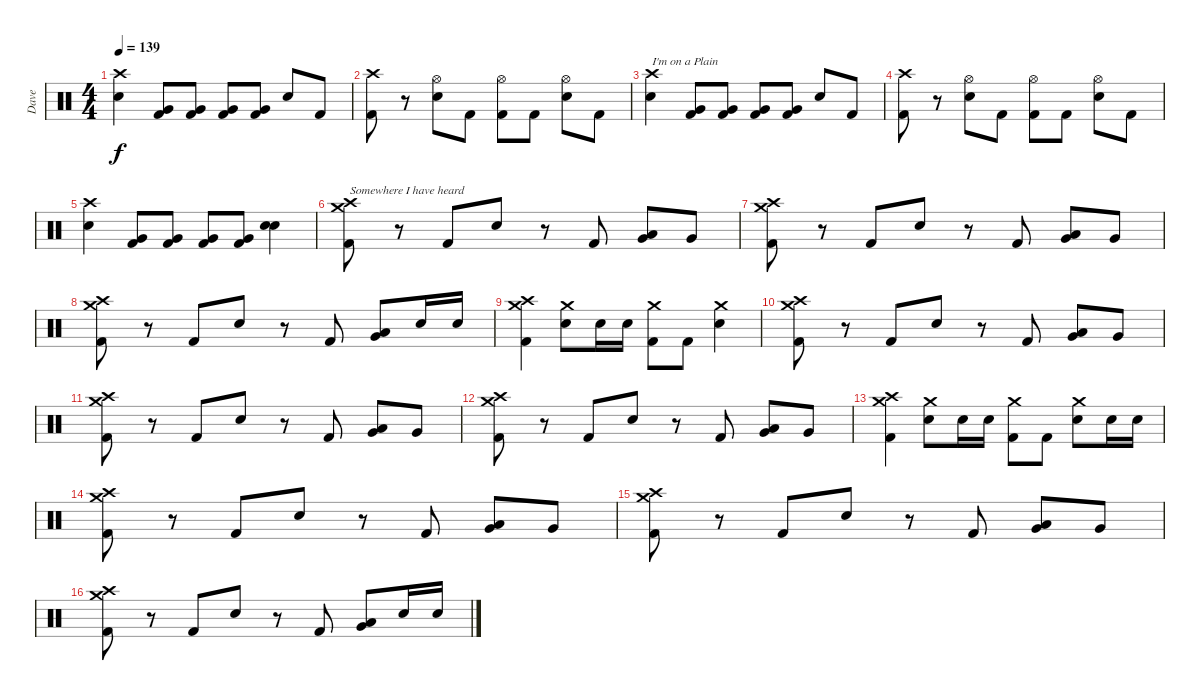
\track ("Dave" "Dave") {instrument percussion}
\staff {score}
\articulation defaults
\ts (4 4)
\tempo 139
\clef neutral
\ks c
("Crash high (hit)" "Snare (hit) 2").4{dy f} ("Very Low Tom (hit)" "Kick (hit) 2").8 ("Very Low Tom (hit)" "Kick (hit) 2").8 ("Very Low Tom (hit)" "Kick (hit) 2").8 ("Very Low Tom (hit)" "Kick (hit) 2").8 "Snare (hit) 2".8 "Kick (hit) 2".8 |
("Crash high (hit)" "Kick (hit) 2").8 r.8 ("Hi-Hat (open)" "Snare (hit) 2").8 "Kick (hit) 2".8 ("Hi-Hat (open)" "Kick (hit) 2").8 "Kick (hit) 2".8 ("Hi-Hat (open)" "Snare (hit) 2").8 "Kick (hit) 2".8 |
("Crash high (hit)" "Snare (hit) 2").4{txt "I'm on a Plain"} ("Very Low Tom (hit)" "Kick (hit) 2").8 ("Very Low Tom (hit)" "Kick (hit) 2").8 ("Very Low Tom (hit)" "Kick (hit) 2").8 ("Very Low Tom (hit)" "Kick (hit) 2").8 "Snare (hit) 2".8 "Kick (hit) 2".8 |
("Crash high (hit)" "Kick (hit) 2").8 r.8 ("Hi-Hat (open)" "Snare (hit) 2").8 "Kick (hit) 2".8 ("Hi-Hat (open)" "Kick (hit) 2").8 "Kick (hit) 2".8 ("Hi-Hat (open)" "Snare (hit) 2").8 "Kick (hit) 2".8 |
("Crash high (hit)" "Snare (hit) 2").4 ("Very Low Tom (hit)" "Kick (hit) 2").8 ("Very Low Tom (hit)" "Kick (hit) 2").8 ("Very Low Tom (hit)" "Kick (hit) 2").8 ("Very Low Tom (hit)" "Kick (hit) 2").8 ("Snare (hit) 2" "Snare (hit) 2").4 |
("Crash medium (hit)" "Crash high (hit)" "Kick (hit) 2").8{txt "Somewhere I have heard "} r.8 "Kick (hit) 2".8 "Snare (hit) 2".8 r.8 "Kick (hit) 2".8 ("Very Low Tom (hit)" "Low Tom (hit)").8 "Very Low Tom (hit)".8 |
("Crash medium (hit)" "Crash high (hit)" "Kick (hit) 2").8 r.8 "Kick (hit) 2".8 "Snare (hit) 2".8 r.8 "Kick (hit) 2".8 ("Very Low Tom (hit)" "Low Tom (hit)").8 "Very Low Tom (hit)".8 |
("Crash medium (hit)" "Crash high (hit)" "Kick (hit) 2").8 r.8 "Kick (hit) 2".8 "Snare (hit) 2".8 r.8 "Kick (hit) 2".8 ("Very Low Tom (hit)" "Low Tom (hit)").8 "Snare (hit) 2".16 "Snare (hit) 2".16 |
("Crash medium (hit)" "Crash high (hit)" "Kick (hit) 2").4 ("Crash medium (hit)" "Snare (hit) 2").8 "Snare (hit) 2".16 "Snare (hit) 2".16 ("Crash medium (hit)" "Kick (hit) 2").8 "Kick (hit) 2".8 ("Crash medium (hit)" "Snare (hit) 2").4 |
("Crash medium (hit)" "Crash high (hit)" "Kick (hit) 2").8 r.8 "Kick (hit) 2".8 "Snare (hit) 2".8 r.8 "Kick (hit) 2".8 ("Very Low Tom (hit)" "Low Tom (hit)").8 "Very Low Tom (hit)".8 |
("Crash medium (hit)" "Crash high (hit)" "Kick (hit) 2").8 r.8 "Kick (hit) 2".8 "Snare (hit) 2".8 r.8 "Kick (hit) 2".8 ("Very Low Tom (hit)" "Low Tom (hit)").8 "Very Low Tom (hit)".8 |
("Crash medium (hit)" "Crash high (hit)" "Kick (hit) 2").8 r.8 "Kick (hit) 2".8 "Snare (hit) 2".8 r.8 "Kick (hit) 2".8 ("Low Tom (hit)" "Very Low Tom (hit)").8 "Very Low Tom (hit)".8 |
("Crash medium (hit)" "Crash high (hit)" "Kick (hit) 2").4 ("Crash medium (hit)" "Snare (hit) 2").8 "Snare (hit) 2".16 "Snare (hit) 2".16 ("Crash medium (hit)" "Kick (hit) 2").8 "Kick (hit) 2".8 ("Crash medium (hit)" "Snare (hit) 2").8 "Snare (hit) 2".16 "Snare (hit) 2".16 |
("Crash medium (hit)" "Crash high (hit)" "Kick (hit) 2").8 r.8 "Kick (hit) 2".8 "Snare (hit) 2".8 r.8 "Kick (hit) 2".8 ("Low Tom (hit)" "Very Low Tom (hit)").8 "Very Low Tom (hit)".8 |
("Crash medium (hit)" "Crash high (hit)" "Kick (hit) 2").8 r.8 "Kick (hit) 2".8 "Snare (hit) 2".8 r.8 "Kick (hit) 2".8 ("Very Low Tom (hit)" "Low Tom (hit)").8 "Very Low Tom (hit)".8 |
("Crash medium (hit)" "Crash high (hit)" "Kick (hit) 2").8 r.8 "Kick (hit) 2".8 "Snare (hit) 2".8 r.8 "Kick (hit) 2".8 ("Low Tom (hit)" "Very Low Tom (hit)").8 "Snare (hit) 2".16 "Snare (hit) 2".16
